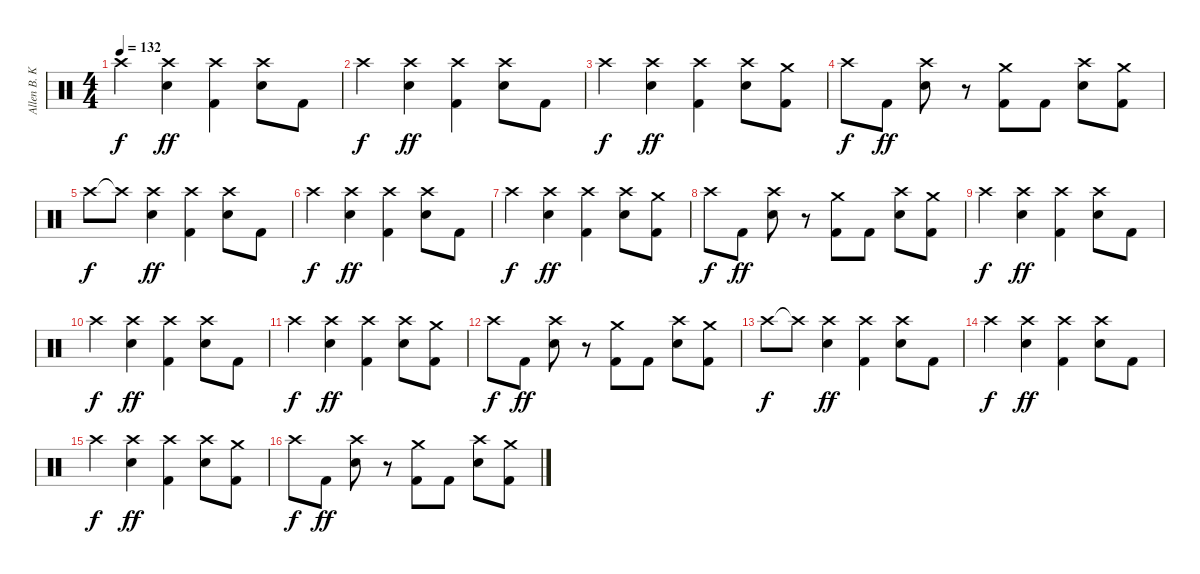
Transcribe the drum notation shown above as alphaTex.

\track ("Allen B. Konstanz (Drums)" "Allen B. K") {instrument percussion}
\staff {score}
\articulation defaults
\ts (4 4)
\tempo 132
\clef neutral
\ks c "Crash high (hit)".4{dy f}
("Electric Snare (hit)" "Crash high (hit)").4{dy ff} ("Kick (hit) 2" "Crash high (hit)").4 ("Electric Snare (hit)" "Crash high (hit)").8 "Kick (hit) 2".8 |
"Crash high (hit)".4{dy f} ("Electric Snare (hit)" "Crash high (hit)").4{dy ff} ("Kick (hit) 2" "Crash high (hit)").4 ("Electric Snare (hit)" "Crash high (hit)").8 "Kick (hit) 2".8 |
"Crash high (hit)".4{dy f} ("Electric Snare (hit)" "Crash high (hit)").4{dy ff} ("Kick (hit) 2" "Crash high (hit)").4 ("Electric Snare (hit)" "Crash high (hit)").8 ("Kick (hit) 2" "Crash medium (hit)").8 |
"Crash high (hit)".8{dy f} "Kick (hit) 2".8{dy ff} ("Electric Snare (hit)" "Crash high (hit)").8 r.8 ("Kick (hit) 2" "Crash medium (hit)").8 "Kick (hit) 2".8 ("Electric Snare (hit)" "Crash high (hit)").8 ("Kick (hit) 2" "Crash medium (hit)").8 |
"Crash high (hit)".8{dy f} "Crash high (hit)"{t}.8 ("Electric Snare (hit)" "Crash high (hit)").4{dy ff} ("Kick (hit) 2" "Crash high (hit)").4 ("Electric Snare (hit)" "Crash high (hit)").8 "Kick (hit) 2".8 |
"Crash high (hit)".4{dy f} ("Electric Snare (hit)" "Crash high (hit)").4{dy ff} ("Kick (hit) 2" "Crash high (hit)").4 ("Electric Snare (hit)" "Crash high (hit)").8 "Kick (hit) 2".8 |
"Crash high (hit)".4{dy f} ("Electric Snare (hit)" "Crash high (hit)").4{dy ff} ("Kick (hit) 2" "Crash high (hit)").4 ("Electric Snare (hit)" "Crash high (hit)").8 ("Kick (hit) 2" "Crash medium (hit)").8 |
"Crash high (hit)".8{dy f} "Kick (hit) 2".8{dy ff} ("Electric Snare (hit)" "Crash high (hit)").8 r.8 ("Kick (hit) 2" "Crash medium (hit)").8 "Kick (hit) 2".8 ("Electric Snare (hit)" "Crash high (hit)").8 ("Kick (hit) 2" "Crash medium (hit)").8 |
"Crash high (hit)".4{dy f} ("Electric Snare (hit)" "Crash high (hit)").4{dy ff} ("Kick (hit) 2" "Crash high (hit)").4 ("Electric Snare (hit)" "Crash high (hit)").8 "Kick (hit) 2".8 |
"Crash high (hit)".4{dy f} ("Electric Snare (hit)" "Crash high (hit)").4{dy ff} ("Kick (hit) 2" "Crash high (hit)").4 ("Electric Snare (hit)" "Crash high (hit)").8 "Kick (hit) 2".8 |
"Crash high (hit)".4{dy f} ("Electric Snare (hit)" "Crash high (hit)").4{dy ff} ("Kick (hit) 2" "Crash high (hit)").4 ("Electric Snare (hit)" "Crash high (hit)").8 ("Kick (hit) 2" "Crash medium (hit)").8 |
"Crash high (hit)".8{dy f} "Kick (hit) 2".8{dy ff} ("Electric Snare (hit)" "Crash high (hit)").8 r.8 ("Kick (hit) 2" "Crash medium (hit)").8 "Kick (hit) 2".8 ("Electric Snare (hit)" "Crash high (hit)").8 ("Kick (hit) 2" "Crash medium (hit)").8 |
"Crash high (hit)".8{dy f} "Crash high (hit)"{t}.8 ("Electric Snare (hit)" "Crash high (hit)").4{dy ff} ("Kick (hit) 2" "Crash high (hit)").4 ("Electric Snare (hit)" "Crash high (hit)").8 "Kick (hit) 2".8 |
"Crash high (hit)".4{dy f} ("Electric Snare (hit)" "Crash high (hit)").4{dy ff} ("Kick (hit) 2" "Crash high (hit)").4 ("Electric Snare (hit)" "Crash high (hit)").8 "Kick (hit) 2".8 |
"Crash high (hit)".4{dy f} ("Electric Snare (hit)" "Crash high (hit)").4{dy ff} ("Kick (hit) 2" "Crash high (hit)").4 ("Electric Snare (hit)" "Crash high (hit)").8 ("Kick (hit) 2" "Crash medium (hit)").8 |
"Crash high (hit)".8{dy f} "Kick (hit) 2".8{dy ff} ("Electric Snare (hit)" "Crash high (hit)").8 r.8 ("Kick (hit) 2" "Crash medium (hit)").8 "Kick (hit) 2".8 ("Electric Snare (hit)" "Crash high (hit)").8 ("Kick (hit) 2" "Crash medium (hit)").8
